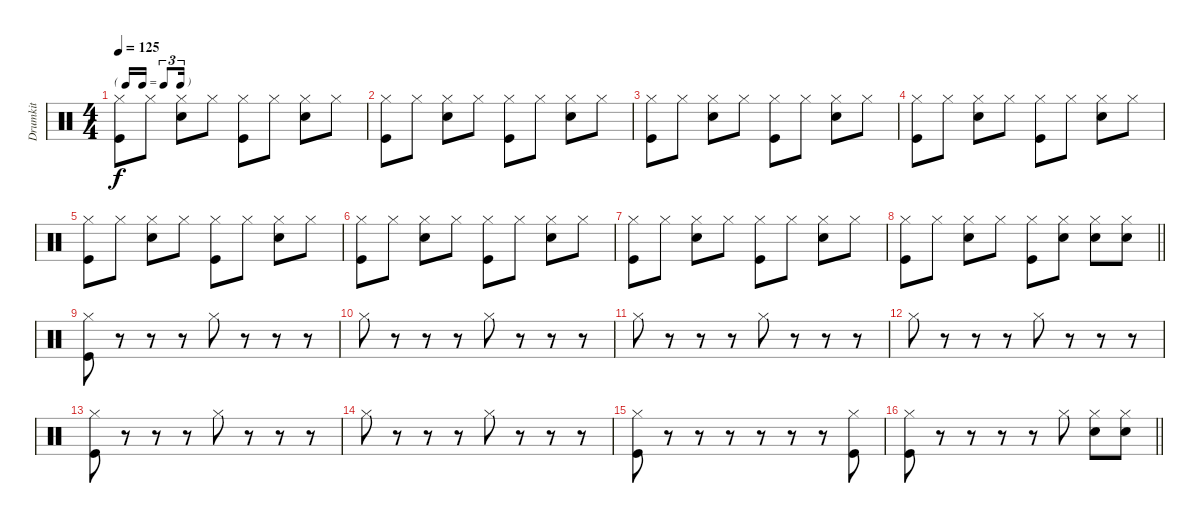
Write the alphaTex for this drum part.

\track ("Drumkit" "Drumkit") {instrument percussion}
\staff {score}
\articulation defaults
\ts (4 4)
\tf triplet16th
\tempo 125
\clef neutral
\ks c
("Kick (hit)" "Hi-Hat (closed)").8{dy f} "Hi-Hat (closed)".8 ("Snare (hit) 2" "Hi-Hat (closed)").8 "Hi-Hat (closed)".8 ("Kick (hit)" "Hi-Hat (closed)").8 "Hi-Hat (closed)".8 ("Snare (hit) 2" "Hi-Hat (closed)").8 "Hi-Hat (closed)".8 |
("Kick (hit)" "Hi-Hat (closed)").8 "Hi-Hat (closed)".8 ("Snare (hit) 2" "Hi-Hat (closed)").8 "Hi-Hat (closed)".8 ("Kick (hit)" "Hi-Hat (closed)").8 "Hi-Hat (closed)".8 ("Snare (hit) 2" "Hi-Hat (closed)").8 "Hi-Hat (closed)".8 |
("Kick (hit)" "Hi-Hat (closed)").8 "Hi-Hat (closed)".8 ("Snare (hit) 2" "Hi-Hat (closed)").8 "Hi-Hat (closed)".8 ("Kick (hit)" "Hi-Hat (closed)").8 "Hi-Hat (closed)".8 ("Snare (hit) 2" "Hi-Hat (closed)").8 "Hi-Hat (closed)".8 |
("Kick (hit)" "Hi-Hat (closed)").8 "Hi-Hat (closed)".8 ("Snare (hit) 2" "Hi-Hat (closed)").8 "Hi-Hat (closed)".8 ("Kick (hit)" "Hi-Hat (closed)").8 "Hi-Hat (closed)".8 ("Snare (hit) 2" "Hi-Hat (closed)").8 "Hi-Hat (closed)".8 |
("Kick (hit)" "Hi-Hat (closed)").8 "Hi-Hat (closed)".8 ("Snare (hit) 2" "Hi-Hat (closed)").8 "Hi-Hat (closed)".8 ("Kick (hit)" "Hi-Hat (closed)").8 "Hi-Hat (closed)".8 ("Snare (hit) 2" "Hi-Hat (closed)").8 "Hi-Hat (closed)".8 |
("Kick (hit)" "Hi-Hat (closed)").8 "Hi-Hat (closed)".8 ("Snare (hit) 2" "Hi-Hat (closed)").8 "Hi-Hat (closed)".8 ("Kick (hit)" "Hi-Hat (closed)").8 "Hi-Hat (closed)".8 ("Snare (hit) 2" "Hi-Hat (closed)").8 "Hi-Hat (closed)".8 |
("Kick (hit)" "Hi-Hat (closed)").8 "Hi-Hat (closed)".8 ("Snare (hit) 2" "Hi-Hat (closed)").8 "Hi-Hat (closed)".8 ("Kick (hit)" "Hi-Hat (closed)").8 "Hi-Hat (closed)".8 ("Snare (hit) 2" "Hi-Hat (closed)").8 "Hi-Hat (closed)".8 |
\barLineRight lightlight
("Kick (hit)" "Hi-Hat (closed)").8 "Hi-Hat (closed)".8 ("Snare (hit) 2" "Hi-Hat (closed)").8 "Hi-Hat (closed)".8 ("Kick (hit)" "Hi-Hat (closed)").8 ("Snare (hit) 2" "Hi-Hat (closed)").8 ("Snare (hit) 2" "Hi-Hat (closed)").8 ("Snare (hit) 2" "Hi-Hat (closed)").8 |
("Kick (hit)" "Hi-Hat (closed)").8 r.8 r.8 r.8 "Hi-Hat (closed)".8 r.8 r.8 r.8 |
"Hi-Hat (closed)".8 r.8 r.8 r.8 "Hi-Hat (closed)".8 r.8 r.8 r.8 |
"Hi-Hat (closed)".8 r.8 r.8 r.8 "Hi-Hat (closed)".8 r.8 r.8 r.8 |
"Hi-Hat (closed)".8 r.8 r.8 r.8 "Hi-Hat (closed)".8 r.8 r.8 r.8 |
("Kick (hit)" "Hi-Hat (closed)").8 r.8 r.8 r.8 "Hi-Hat (closed)".8 r.8 r.8 r.8 |
"Hi-Hat (closed)".8 r.8 r.8 r.8 "Hi-Hat (closed)".8 r.8 r.8 r.8 |
("Kick (hit)" "Hi-Hat (closed)").8 r.8 r.8 r.8 r.8 r.8 r.8 ("Kick (hit)" "Hi-Hat (closed)").8 |
\barLineRight lightlight
("Kick (hit)" "Hi-Hat (closed)").8 r.8 r.8 r.8 r.8 "Hi-Hat (closed)".8 ("Snare (hit) 2" "Hi-Hat (closed)").8 ("Snare (hit) 2" "Hi-Hat (closed)").8
